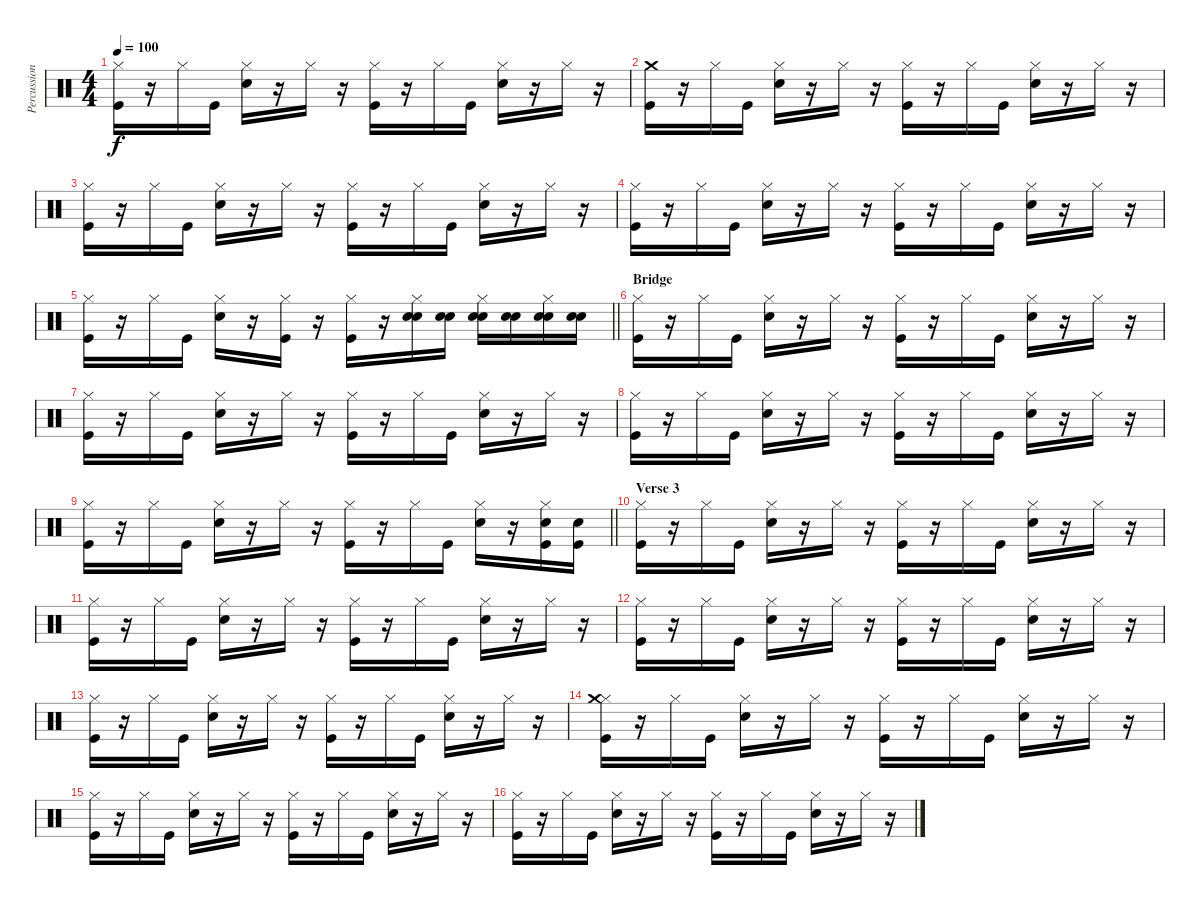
\track ("Percussion (Chad Smith)" "Percussion") {instrument percussion}
\staff {score}
\articulation defaults
\ts (4 4)
\tempo 100
\clef neutral
\ks c
("Hi-Hat (closed)" "Kick (hit)").16{dy f} r.16 "Hi-Hat (closed)".16 "Kick (hit)".16 ("Hi-Hat (closed)" "Snare (hit) 2").16 r.16 "Hi-Hat (closed)".16 r.16 ("Hi-Hat (closed)" "Kick (hit)").16 r.16 "Hi-Hat (closed)".16 "Kick (hit)".16 ("Hi-Hat (closed)" "Snare (hit) 2").16 r.16 "Hi-Hat (closed)".16 r.16 |
("Crash medium (hit)" "Kick (hit)").16 r.16 "Hi-Hat (closed)".16 "Kick (hit)".16 ("Hi-Hat (closed)" "Snare (hit) 2").16 r.16 "Hi-Hat (closed)".16 r.16 ("Hi-Hat (closed)" "Kick (hit)").16 r.16 "Hi-Hat (closed)".16 "Kick (hit)".16 ("Hi-Hat (closed)" "Snare (hit) 2").16 r.16 "Hi-Hat (closed)".16 r.16 |
("Hi-Hat (closed)" "Kick (hit)").16 r.16 "Hi-Hat (closed)".16 "Kick (hit)".16 ("Hi-Hat (closed)" "Snare (hit) 2").16 r.16 "Hi-Hat (closed)".16 r.16 ("Hi-Hat (closed)" "Kick (hit)").16 r.16 "Hi-Hat (closed)".16 "Kick (hit)".16 ("Hi-Hat (closed)" "Snare (hit) 2").16 r.16 "Hi-Hat (closed)".16 r.16 |
("Hi-Hat (closed)" "Kick (hit)").16 r.16 "Hi-Hat (closed)".16 "Kick (hit)".16 ("Hi-Hat (closed)" "Snare (hit) 2").16 r.16 "Hi-Hat (closed)".16 r.16 ("Hi-Hat (closed)" "Kick (hit)").16 r.16 "Hi-Hat (closed)".16 "Kick (hit)".16 ("Hi-Hat (closed)" "Snare (hit) 2").16 r.16 "Hi-Hat (closed)".16 r.16 |
\barLineRight lightlight
("Hi-Hat (closed)" "Kick (hit)").16 r.16 "Hi-Hat (closed)".16 "Kick (hit)".16 ("Hi-Hat (closed)" "Snare (hit) 2").16 r.16 ("Hi-Hat (closed)" "Kick (hit)").16 r.16 ("Hi-Hat (closed)" "Kick (hit)").16 r.16 ("Hi-Hat (closed)" "Snare (hit) 2" "Electric Snare (hit)").16 ("Snare (hit) 2" "Electric Snare (hit)").16 ("Hi-Hat (closed)" "Snare (hit) 2" "Electric Snare (hit)").16 ("Snare (hit) 2" "Electric Snare (hit)").16 ("Hi-Hat (closed)" "Snare (hit) 2" "Electric Snare (hit)").16 ("Snare (hit) 2" "Electric Snare (hit)").16 |
\section ("" "Bridge")
("Hi-Hat (closed)" "Kick (hit)").16 r.16 "Hi-Hat (closed)".16 "Kick (hit)".16 ("Hi-Hat (closed)" "Snare (hit) 2").16 r.16 "Hi-Hat (closed)".16 r.16 ("Hi-Hat (closed)" "Kick (hit)").16 r.16 "Hi-Hat (closed)".16 "Kick (hit)".16 ("Hi-Hat (closed)" "Snare (hit) 2").16 r.16 "Hi-Hat (closed)".16 r.16 |
("Hi-Hat (closed)" "Kick (hit)").16 r.16 "Hi-Hat (closed)".16 "Kick (hit)".16 ("Hi-Hat (closed)" "Snare (hit) 2").16 r.16 "Hi-Hat (closed)".16 r.16 ("Hi-Hat (closed)" "Kick (hit)").16 r.16 "Hi-Hat (closed)".16 "Kick (hit)".16 ("Hi-Hat (closed)" "Snare (hit) 2").16 r.16 "Hi-Hat (closed)".16 r.16 |
("Hi-Hat (closed)" "Kick (hit)").16 r.16 "Hi-Hat (closed)".16 "Kick (hit)".16 ("Hi-Hat (closed)" "Snare (hit) 2").16 r.16 "Hi-Hat (closed)".16 r.16 ("Hi-Hat (closed)" "Kick (hit)").16 r.16 "Hi-Hat (closed)".16 "Kick (hit)".16 ("Hi-Hat (closed)" "Snare (hit) 2").16 r.16 "Hi-Hat (closed)".16 r.16 |
\barLineRight lightlight
("Hi-Hat (closed)" "Kick (hit)").16 r.16 "Hi-Hat (closed)".16 "Kick (hit)".16 ("Hi-Hat (closed)" "Snare (hit) 2").16 r.16 "Hi-Hat (closed)".16 r.16 ("Hi-Hat (closed)" "Kick (hit)").16 r.16 "Hi-Hat (closed)".16 "Kick (hit)".16 ("Hi-Hat (closed)" "Snare (hit) 2").16 r.16 ("Hi-Hat (closed)" "Snare (hit) 2" "Kick (hit)").16 ("Snare (hit) 2" "Kick (hit)").16 |
\section ("" "Verse 3")
("Hi-Hat (closed)" "Kick (hit)").16 r.16 "Hi-Hat (closed)".16 "Kick (hit)".16 ("Hi-Hat (closed)" "Snare (hit) 2").16 r.16 "Hi-Hat (closed)".16 r.16 ("Hi-Hat (closed)" "Kick (hit)").16 r.16 "Hi-Hat (closed)".16 "Kick (hit)".16 ("Hi-Hat (closed)" "Snare (hit) 2").16 r.16 "Hi-Hat (closed)".16 r.16 |
("Hi-Hat (closed)" "Kick (hit)").16 r.16 "Hi-Hat (closed)".16 "Kick (hit)".16 ("Hi-Hat (closed)" "Snare (hit) 2").16 r.16 "Hi-Hat (closed)".16 r.16 ("Hi-Hat (closed)" "Kick (hit)").16 r.16 "Hi-Hat (closed)".16 "Kick (hit)".16 ("Hi-Hat (closed)" "Snare (hit) 2").16 r.16 "Hi-Hat (closed)".16 r.16 |
("Hi-Hat (closed)" "Kick (hit)").16 r.16 "Hi-Hat (closed)".16 "Kick (hit)".16 ("Hi-Hat (closed)" "Snare (hit) 2").16 r.16 "Hi-Hat (closed)".16 r.16 ("Hi-Hat (closed)" "Kick (hit)").16 r.16 "Hi-Hat (closed)".16 "Kick (hit)".16 ("Hi-Hat (closed)" "Snare (hit) 2").16 r.16 "Hi-Hat (closed)".16 r.16 |
("Hi-Hat (closed)" "Kick (hit)").16 r.16 "Hi-Hat (closed)".16 "Kick (hit)".16 ("Hi-Hat (closed)" "Snare (hit) 2").16 r.16 "Hi-Hat (closed)".16 r.16 ("Hi-Hat (closed)" "Kick (hit)").16 r.16 "Hi-Hat (closed)".16 "Kick (hit)".16 ("Hi-Hat (closed)" "Snare (hit) 2").16 r.16 "Hi-Hat (closed)".16 r.16 |
("Hi-Hat (closed)" "Crash medium (hit)" "Kick (hit)").16 r.16 "Hi-Hat (closed)".16 "Kick (hit)".16 ("Hi-Hat (closed)" "Snare (hit) 2").16 r.16 "Hi-Hat (closed)".16 r.16 ("Hi-Hat (closed)" "Kick (hit)").16 r.16 "Hi-Hat (closed)".16 "Kick (hit)".16 ("Hi-Hat (closed)" "Snare (hit) 2").16 r.16 "Hi-Hat (closed)".16 r.16 |
("Hi-Hat (closed)" "Kick (hit)").16 r.16 "Hi-Hat (closed)".16 "Kick (hit)".16 ("Hi-Hat (closed)" "Snare (hit) 2").16 r.16 "Hi-Hat (closed)".16 r.16 ("Hi-Hat (closed)" "Kick (hit)").16 r.16 "Hi-Hat (closed)".16 "Kick (hit)".16 ("Hi-Hat (closed)" "Snare (hit) 2").16 r.16 "Hi-Hat (closed)".16 r.16 |
("Hi-Hat (closed)" "Kick (hit)").16 r.16 "Hi-Hat (closed)".16 "Kick (hit)".16 ("Hi-Hat (closed)" "Snare (hit) 2").16 r.16 "Hi-Hat (closed)".16 r.16 ("Hi-Hat (closed)" "Kick (hit)").16 r.16 "Hi-Hat (closed)".16 "Kick (hit)".16 ("Hi-Hat (closed)" "Snare (hit) 2").16 r.16 "Hi-Hat (closed)".16 r.16
